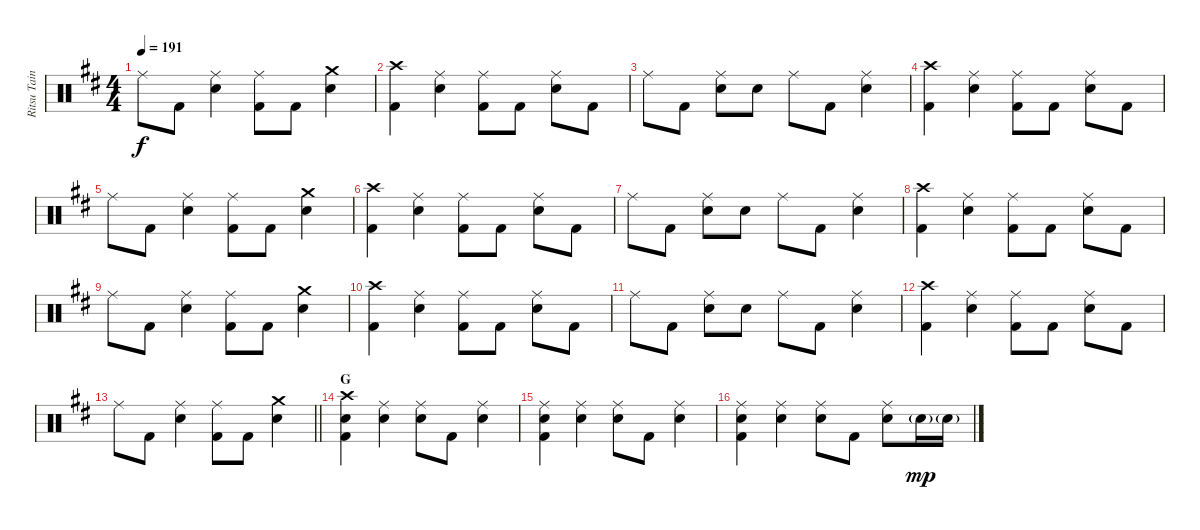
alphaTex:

\track ("Ritsu Tainaka" "Ritsu Tain") {instrument percussion}
\staff {score}
\articulation defaults
\ts (4 4)
\tempo 191
\clef neutral
\ks d "Ride (middle)".8{dy f} "Kick (hit) 2".8
("Ride (middle)" "Electric Snare (hit)").4 ("Ride (middle)" "Kick (hit) 2").8 "Kick (hit) 2".8 ("Crash medium (hit)" "Electric Snare (hit)").4 |
("Crash high (hit)" "Kick (hit) 2").4 ("Ride (middle)" "Electric Snare (hit)").4 ("Ride (middle)" "Kick (hit) 2").8 "Kick (hit) 2".8 ("Ride (middle)" "Electric Snare (hit)").8 "Kick (hit) 2".8 |
"Ride (middle)".8 "Kick (hit) 2".8 ("Ride (middle)" "Electric Snare (hit)").8 "Electric Snare (hit)".8 "Ride (middle)".8 "Kick (hit) 2".8 ("Ride (middle)" "Electric Snare (hit)").4 |
("Crash high (hit)" "Kick (hit) 2").4 ("Ride (middle)" "Electric Snare (hit)").4 ("Ride (middle)" "Kick (hit) 2").8 "Kick (hit) 2".8 ("Ride (middle)" "Electric Snare (hit)").8 "Kick (hit) 2".8 |
"Ride (middle)".8 "Kick (hit) 2".8 ("Ride (middle)" "Electric Snare (hit)").4 ("Ride (middle)" "Kick (hit) 2").8 "Kick (hit) 2".8 ("Crash medium (hit)" "Electric Snare (hit)").4 |
("Crash high (hit)" "Kick (hit) 2").4 ("Ride (middle)" "Electric Snare (hit)").4 ("Ride (middle)" "Kick (hit) 2").8 "Kick (hit) 2".8 ("Ride (middle)" "Electric Snare (hit)").8 "Kick (hit) 2".8 |
"Ride (middle)".8 "Kick (hit) 2".8 ("Ride (middle)" "Electric Snare (hit)").8 "Electric Snare (hit)".8 "Ride (middle)".8 "Kick (hit) 2".8 ("Ride (middle)" "Electric Snare (hit)").4 |
("Crash high (hit)" "Kick (hit) 2").4 ("Ride (middle)" "Electric Snare (hit)").4 ("Ride (middle)" "Kick (hit) 2").8 "Kick (hit) 2".8 ("Ride (middle)" "Electric Snare (hit)").8 "Kick (hit) 2".8 |
"Ride (middle)".8 "Kick (hit) 2".8 ("Ride (middle)" "Electric Snare (hit)").4 ("Ride (middle)" "Kick (hit) 2").8 "Kick (hit) 2".8 ("Crash medium (hit)" "Electric Snare (hit)").4 |
("Crash high (hit)" "Kick (hit) 2").4 ("Ride (middle)" "Electric Snare (hit)").4 ("Ride (middle)" "Kick (hit) 2").8 "Kick (hit) 2".8 ("Ride (middle)" "Electric Snare (hit)").8 "Kick (hit) 2".8 |
"Ride (middle)".8 "Kick (hit) 2".8 ("Ride (middle)" "Electric Snare (hit)").8 "Electric Snare (hit)".8 "Ride (middle)".8 "Kick (hit) 2".8 ("Ride (middle)" "Electric Snare (hit)").4 |
("Crash high (hit)" "Kick (hit) 2").4 ("Ride (middle)" "Electric Snare (hit)").4 ("Ride (middle)" "Kick (hit) 2").8 "Kick (hit) 2".8 ("Ride (middle)" "Electric Snare (hit)").8 "Kick (hit) 2".8 |
\barLineRight lightlight "Ride (middle)".8 "Kick (hit) 2".8
("Ride (middle)" "Electric Snare (hit)").4 ("Ride (middle)" "Kick (hit) 2").8 "Kick (hit) 2".8 ("Crash medium (hit)" "Electric Snare (hit)").4 |
\section ("" "G")
("Crash high (hit)" "Electric Snare (hit)" "Kick (hit) 2").4 ("Ride (middle)" "Electric Snare (hit)").4 ("Ride (middle)" "Electric Snare (hit)").8 "Kick (hit) 2".8 ("Ride (middle)" "Electric Snare (hit)").4 |
("Ride (middle)" "Electric Snare (hit)" "Kick (hit) 2").4 ("Ride (middle)" "Electric Snare (hit)").4 ("Ride (middle)" "Electric Snare (hit)").8 "Kick (hit) 2".8 ("Ride (middle)" "Electric Snare (hit)").4 |
("Ride (middle)" "Electric Snare (hit)" "Kick (hit) 2").4 ("Ride (middle)" "Electric Snare (hit)").4 ("Ride (middle)" "Electric Snare (hit)").8 "Kick (hit) 2".8 ("Ride (middle)" "Electric Snare (hit)").8 "Electric Snare (hit)"{g}.16{dy mp} "Electric Snare (hit)"{g}.16
